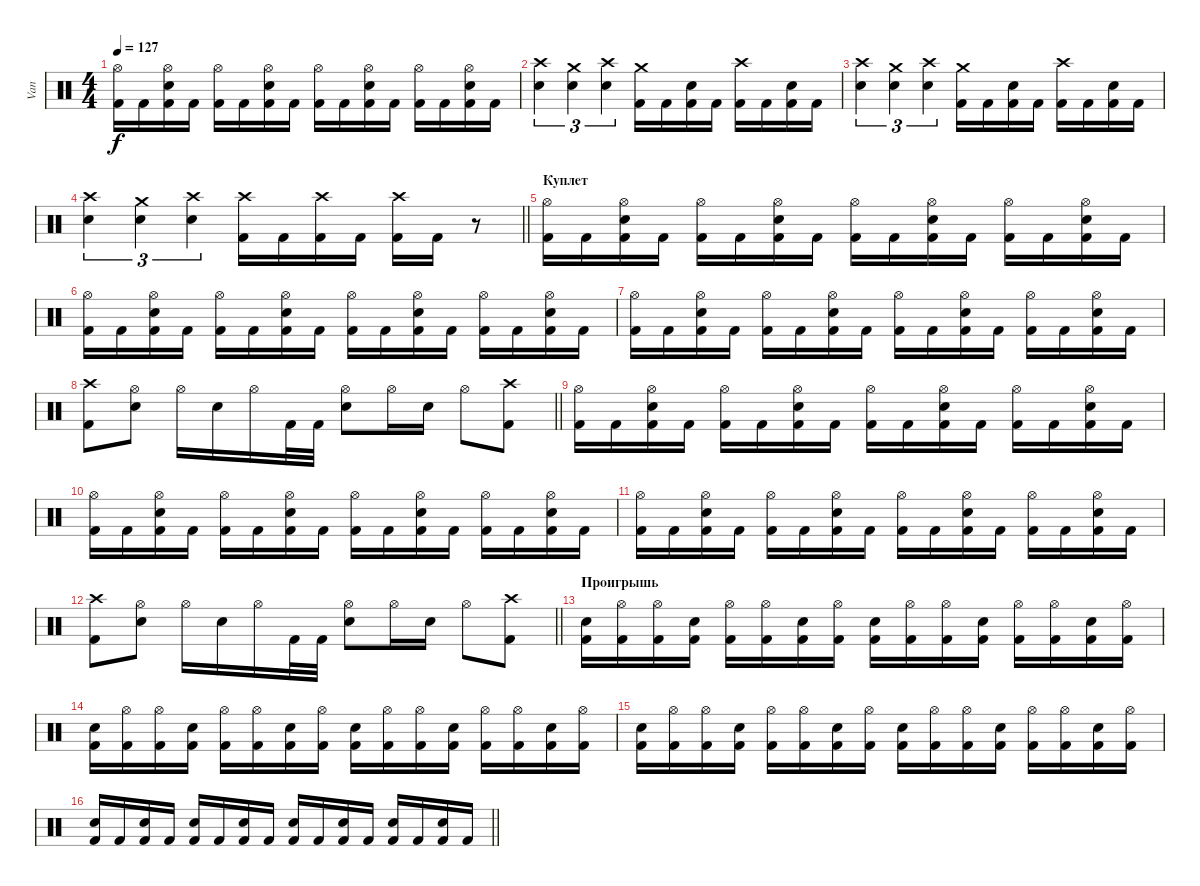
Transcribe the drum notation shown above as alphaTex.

\track ("Van" "Van") {instrument percussion}
\staff {score}
\articulation defaults
\ts (4 4)
\tempo 127
\clef neutral
\ks c
("Kick (hit) 2" "Hi-Hat (open)").16{dy f} "Kick (hit) 2".16 ("Kick (hit) 2" "Hi-Hat (open)" "Electric Snare (hit)").16 "Kick (hit) 2".16 ("Kick (hit) 2" "Hi-Hat (open)").16 "Kick (hit) 2".16 ("Kick (hit) 2" "Hi-Hat (open)" "Electric Snare (hit)").16 "Kick (hit) 2".16 ("Kick (hit) 2" "Hi-Hat (open)").16 "Kick (hit) 2".16 ("Kick (hit) 2" "Hi-Hat (open)" "Electric Snare (hit)").16 "Kick (hit) 2".16 ("Kick (hit) 2" "Hi-Hat (open)").16 "Kick (hit) 2".16 ("Kick (hit) 2" "Hi-Hat (open)" "Electric Snare (hit)").16 "Kick (hit) 2".16 |
("Crash high (hit)" "Electric Snare (hit)").4{tu (3 2)} ("Crash medium (hit)" "Electric Snare (hit)").4{tu (3 2)} ("Crash high (hit)" "Electric Snare (hit)").4{tu (3 2)} ("Kick (hit) 2" "Crash medium (hit)").16 "Kick (hit) 2".16 ("Kick (hit) 2" "Electric Snare (hit)").16 "Kick (hit) 2".16 ("Kick (hit) 2" "Crash high (hit)").16 "Kick (hit) 2".16 ("Kick (hit) 2" "Electric Snare (hit)").16 "Kick (hit) 2".16 |
("Crash high (hit)" "Electric Snare (hit)").4{tu (3 2)} ("Crash medium (hit)" "Electric Snare (hit)").4{tu (3 2)} ("Crash high (hit)" "Electric Snare (hit)").4{tu (3 2)} ("Kick (hit) 2" "Crash medium (hit)").16 "Kick (hit) 2".16 ("Kick (hit) 2" "Electric Snare (hit)").16 "Kick (hit) 2".16 ("Kick (hit) 2" "Crash high (hit)").16 "Kick (hit) 2".16 ("Kick (hit) 2" "Electric Snare (hit)").16 "Kick (hit) 2".16 |
\barLineRight lightlight
("Crash high (hit)" "Electric Snare (hit)").4{tu (3 2)} ("Crash medium (hit)" "Electric Snare (hit)").4{tu (3 2)} ("Crash high (hit)" "Electric Snare (hit)").4{tu (3 2)} ("Kick (hit) 2" "Crash high (hit)").16 "Kick (hit) 2".16 ("Kick (hit) 2" "Crash high (hit)").16 "Kick (hit) 2".16 ("Kick (hit) 2" "Crash high (hit)").16 "Kick (hit) 2".16 r.8 |
\section ("" "Куплет")
("Kick (hit) 2" "Hi-Hat (open)").16 "Kick (hit) 2".16 ("Kick (hit) 2" "Snare (hit) 2" "Hi-Hat (open)").16 "Kick (hit) 2".16 ("Kick (hit) 2" "Hi-Hat (open)").16 "Kick (hit) 2".16 ("Kick (hit) 2" "Snare (hit) 2" "Hi-Hat (open)").16 "Kick (hit) 2".16 ("Kick (hit) 2" "Hi-Hat (open)").16 "Kick (hit) 2".16 ("Kick (hit) 2" "Snare (hit) 2" "Hi-Hat (open)").16 "Kick (hit) 2".16 ("Kick (hit) 2" "Hi-Hat (open)").16 "Kick (hit) 2".16 ("Kick (hit) 2" "Snare (hit) 2" "Hi-Hat (open)").16 "Kick (hit) 2".16 |
("Kick (hit) 2" "Hi-Hat (open)").16 "Kick (hit) 2".16 ("Kick (hit) 2" "Snare (hit) 2" "Hi-Hat (open)").16 "Kick (hit) 2".16 ("Kick (hit) 2" "Hi-Hat (open)").16 "Kick (hit) 2".16 ("Kick (hit) 2" "Snare (hit) 2" "Hi-Hat (open)").16 "Kick (hit) 2".16 ("Kick (hit) 2" "Hi-Hat (open)").16 "Kick (hit) 2".16 ("Kick (hit) 2" "Snare (hit) 2" "Hi-Hat (open)").16 "Kick (hit) 2".16 ("Kick (hit) 2" "Hi-Hat (open)").16 "Kick (hit) 2".16 ("Kick (hit) 2" "Snare (hit) 2" "Hi-Hat (open)").16 "Kick (hit) 2".16 |
("Kick (hit) 2" "Hi-Hat (open)").16 "Kick (hit) 2".16 ("Kick (hit) 2" "Snare (hit) 2" "Hi-Hat (open)").16 "Kick (hit) 2".16 ("Kick (hit) 2" "Hi-Hat (open)").16 "Kick (hit) 2".16 ("Kick (hit) 2" "Snare (hit) 2" "Hi-Hat (open)").16 "Kick (hit) 2".16 ("Kick (hit) 2" "Hi-Hat (open)").16 "Kick (hit) 2".16 ("Kick (hit) 2" "Snare (hit) 2" "Hi-Hat (open)").16 "Kick (hit) 2".16 ("Kick (hit) 2" "Hi-Hat (open)").16 "Kick (hit) 2".16 ("Kick (hit) 2" "Snare (hit) 2" "Hi-Hat (open)").16 "Kick (hit) 2".16 |
\barLineRight lightlight
("Kick (hit) 2" "Crash high (hit)").8 ("Snare (hit) 2" "Hi-Hat (open)").8 "Hi-Hat (open)".16 "Snare (hit) 2".16 "Hi-Hat (open)".16 "Kick (hit) 2".32 "Kick (hit) 2".32 ("Snare (hit) 2" "Hi-Hat (open)").8 "Hi-Hat (open)".16 "Snare (hit) 2".16 "Hi-Hat (open)".8 ("Kick (hit) 2" "Crash high (hit)").8 |
("Kick (hit) 2" "Hi-Hat (open)").16 "Kick (hit) 2".16 ("Kick (hit) 2" "Snare (hit) 2" "Hi-Hat (open)").16 "Kick (hit) 2".16 ("Kick (hit) 2" "Hi-Hat (open)").16 "Kick (hit) 2".16 ("Kick (hit) 2" "Snare (hit) 2" "Hi-Hat (open)").16 "Kick (hit) 2".16 ("Kick (hit) 2" "Hi-Hat (open)").16 "Kick (hit) 2".16 ("Kick (hit) 2" "Snare (hit) 2" "Hi-Hat (open)").16 "Kick (hit) 2".16 ("Kick (hit) 2" "Hi-Hat (open)").16 "Kick (hit) 2".16 ("Kick (hit) 2" "Snare (hit) 2" "Hi-Hat (open)").16 "Kick (hit) 2".16 |
("Kick (hit) 2" "Hi-Hat (open)").16 "Kick (hit) 2".16 ("Kick (hit) 2" "Snare (hit) 2" "Hi-Hat (open)").16 "Kick (hit) 2".16 ("Kick (hit) 2" "Hi-Hat (open)").16 "Kick (hit) 2".16 ("Kick (hit) 2" "Snare (hit) 2" "Hi-Hat (open)").16 "Kick (hit) 2".16 ("Kick (hit) 2" "Hi-Hat (open)").16 "Kick (hit) 2".16 ("Kick (hit) 2" "Snare (hit) 2" "Hi-Hat (open)").16 "Kick (hit) 2".16 ("Kick (hit) 2" "Hi-Hat (open)").16 "Kick (hit) 2".16 ("Kick (hit) 2" "Snare (hit) 2" "Hi-Hat (open)").16 "Kick (hit) 2".16 |
("Kick (hit) 2" "Hi-Hat (open)").16 "Kick (hit) 2".16 ("Kick (hit) 2" "Snare (hit) 2" "Hi-Hat (open)").16 "Kick (hit) 2".16 ("Kick (hit) 2" "Hi-Hat (open)").16 "Kick (hit) 2".16 ("Kick (hit) 2" "Snare (hit) 2" "Hi-Hat (open)").16 "Kick (hit) 2".16 ("Kick (hit) 2" "Hi-Hat (open)").16 "Kick (hit) 2".16 ("Kick (hit) 2" "Snare (hit) 2" "Hi-Hat (open)").16 "Kick (hit) 2".16 ("Kick (hit) 2" "Hi-Hat (open)").16 "Kick (hit) 2".16 ("Kick (hit) 2" "Snare (hit) 2" "Hi-Hat (open)").16 "Kick (hit) 2".16 |
\barLineRight lightlight
("Kick (hit) 2" "Crash high (hit)").8 ("Snare (hit) 2" "Hi-Hat (open)").8 "Hi-Hat (open)".16 "Snare (hit) 2".16 "Hi-Hat (open)".16 "Kick (hit) 2".32 "Kick (hit) 2".32 ("Snare (hit) 2" "Hi-Hat (open)").8 "Hi-Hat (open)".16 "Snare (hit) 2".16 "Hi-Hat (open)".8 ("Kick (hit) 2" "Crash high (hit)").8 |
\section ("" "Проигрышь")
("Kick (hit) 2" "Electric Snare (hit)").16 ("Kick (hit) 2" "Hi-Hat (open)").16 ("Kick (hit) 2" "Hi-Hat (open)").16 ("Kick (hit) 2" "Electric Snare (hit)").16 ("Kick (hit) 2" "Hi-Hat (open)").16 ("Kick (hit) 2" "Hi-Hat (open)").16 ("Kick (hit) 2" "Electric Snare (hit)").16 ("Kick (hit) 2" "Hi-Hat (open)").16 ("Kick (hit) 2" "Electric Snare (hit)").16 ("Kick (hit) 2" "Hi-Hat (open)").16 ("Kick (hit) 2" "Hi-Hat (open)").16 ("Kick (hit) 2" "Electric Snare (hit)").16 ("Kick (hit) 2" "Hi-Hat (open)").16 ("Kick (hit) 2" "Hi-Hat (open)").16 ("Kick (hit) 2" "Electric Snare (hit)").16 ("Kick (hit) 2" "Hi-Hat (open)").16 |
("Kick (hit) 2" "Electric Snare (hit)").16 ("Kick (hit) 2" "Hi-Hat (open)").16 ("Kick (hit) 2" "Hi-Hat (open)").16 ("Kick (hit) 2" "Electric Snare (hit)").16 ("Kick (hit) 2" "Hi-Hat (open)").16 ("Kick (hit) 2" "Hi-Hat (open)").16 ("Kick (hit) 2" "Electric Snare (hit)").16 ("Kick (hit) 2" "Hi-Hat (open)").16 ("Kick (hit) 2" "Electric Snare (hit)").16 ("Kick (hit) 2" "Hi-Hat (open)").16 ("Kick (hit) 2" "Hi-Hat (open)").16 ("Kick (hit) 2" "Electric Snare (hit)").16 ("Kick (hit) 2" "Hi-Hat (open)").16 ("Kick (hit) 2" "Hi-Hat (open)").16 ("Kick (hit) 2" "Electric Snare (hit)").16 ("Kick (hit) 2" "Hi-Hat (open)").16 |
("Kick (hit) 2" "Electric Snare (hit)").16 ("Kick (hit) 2" "Hi-Hat (open)").16 ("Kick (hit) 2" "Hi-Hat (open)").16 ("Kick (hit) 2" "Electric Snare (hit)").16 ("Kick (hit) 2" "Hi-Hat (open)").16 ("Kick (hit) 2" "Hi-Hat (open)").16 ("Kick (hit) 2" "Electric Snare (hit)").16 ("Kick (hit) 2" "Hi-Hat (open)").16 ("Kick (hit) 2" "Electric Snare (hit)").16 ("Kick (hit) 2" "Hi-Hat (open)").16 ("Kick (hit) 2" "Hi-Hat (open)").16 ("Kick (hit) 2" "Electric Snare (hit)").16 ("Kick (hit) 2" "Hi-Hat (open)").16 ("Kick (hit) 2" "Hi-Hat (open)").16 ("Kick (hit) 2" "Electric Snare (hit)").16 ("Kick (hit) 2" "Hi-Hat (open)").16 |
\barLineRight lightlight
("Kick (hit) 2" "Electric Snare (hit)").16 "Kick (hit) 2".16 ("Kick (hit) 2" "Electric Snare (hit)").16 "Kick (hit) 2".16 ("Kick (hit) 2" "Electric Snare (hit)").16 "Kick (hit) 2".16 ("Kick (hit) 2" "Electric Snare (hit)").16 "Kick (hit) 2".16 ("Kick (hit) 2" "Electric Snare (hit)").16 "Kick (hit) 2".16 ("Kick (hit) 2" "Electric Snare (hit)").16 "Kick (hit) 2".16 ("Kick (hit) 2" "Electric Snare (hit)").16 "Kick (hit) 2".16 ("Kick (hit) 2" "Electric Snare (hit)").16 "Kick (hit) 2".16
